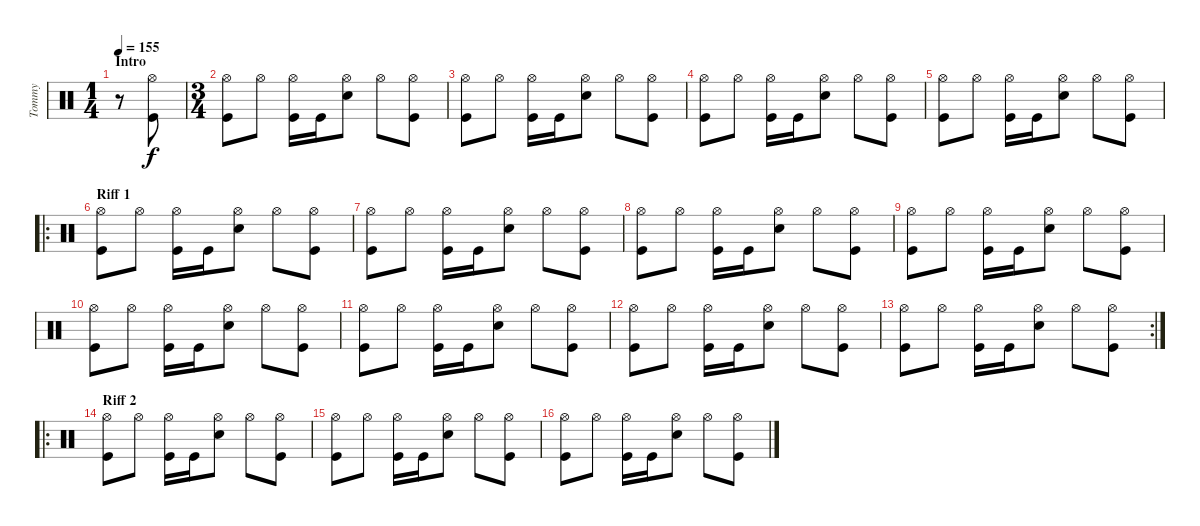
\track ("Tommy" "Tommy") {instrument percussion}
\staff {score}
\articulation defaults
\ts (1 4)
\section ("" "Intro")
\tempo 155
\clef neutral
\ks c
r.8{dy f} ("Hi-Hat (open)" "Kick (hit)").8 |
\ts (3 4)
("Hi-Hat (open)" "Kick (hit)").8 "Hi-Hat (open)".8 ("Hi-Hat (open)" "Kick (hit)").16 "Kick (hit)".16 ("Electric Snare (hit)" "Hi-Hat (open)").8 "Hi-Hat (open)".8 ("Hi-Hat (open)" "Kick (hit)").8 |
("Hi-Hat (open)" "Kick (hit)").8 "Hi-Hat (open)".8 ("Hi-Hat (open)" "Kick (hit)").16 "Kick (hit)".16 ("Electric Snare (hit)" "Hi-Hat (open)").8 "Hi-Hat (open)".8 ("Hi-Hat (open)" "Kick (hit)").8 |
("Hi-Hat (open)" "Kick (hit)").8 "Hi-Hat (open)".8 ("Hi-Hat (open)" "Kick (hit)").16 "Kick (hit)".16 ("Electric Snare (hit)" "Hi-Hat (open)").8 "Hi-Hat (open)".8 ("Hi-Hat (open)" "Kick (hit)").8 |
("Hi-Hat (open)" "Kick (hit)").8 "Hi-Hat (open)".8 ("Hi-Hat (open)" "Kick (hit)").16 "Kick (hit)".16 ("Electric Snare (hit)" "Hi-Hat (open)").8 "Hi-Hat (open)".8 ("Hi-Hat (open)" "Kick (hit)").8 |
\ro
\section ("" "Riff 1")
("Hi-Hat (open)" "Kick (hit)").8 "Hi-Hat (open)".8 ("Hi-Hat (open)" "Kick (hit)").16 "Kick (hit)".16 ("Electric Snare (hit)" "Hi-Hat (open)").8 "Hi-Hat (open)".8 ("Hi-Hat (open)" "Kick (hit)").8 |
("Hi-Hat (open)" "Kick (hit)").8 "Hi-Hat (open)".8 ("Hi-Hat (open)" "Kick (hit)").16 "Kick (hit)".16 ("Electric Snare (hit)" "Hi-Hat (open)").8 "Hi-Hat (open)".8 ("Hi-Hat (open)" "Kick (hit)").8 |
("Hi-Hat (open)" "Kick (hit)").8 "Hi-Hat (open)".8 ("Hi-Hat (open)" "Kick (hit)").16 "Kick (hit)".16 ("Electric Snare (hit)" "Hi-Hat (open)").8 "Hi-Hat (open)".8 ("Hi-Hat (open)" "Kick (hit)").8 |
("Hi-Hat (open)" "Kick (hit)").8 "Hi-Hat (open)".8 ("Hi-Hat (open)" "Kick (hit)").16 "Kick (hit)".16 ("Electric Snare (hit)" "Hi-Hat (open)").8 "Hi-Hat (open)".8 ("Hi-Hat (open)" "Kick (hit)").8 |
("Hi-Hat (open)" "Kick (hit)").8 "Hi-Hat (open)".8 ("Hi-Hat (open)" "Kick (hit)").16 "Kick (hit)".16 ("Electric Snare (hit)" "Hi-Hat (open)").8 "Hi-Hat (open)".8 ("Hi-Hat (open)" "Kick (hit)").8 |
("Hi-Hat (open)" "Kick (hit)").8 "Hi-Hat (open)".8 ("Hi-Hat (open)" "Kick (hit)").16 "Kick (hit)".16 ("Electric Snare (hit)" "Hi-Hat (open)").8 "Hi-Hat (open)".8 ("Hi-Hat (open)" "Kick (hit)").8 |
("Hi-Hat (open)" "Kick (hit)").8 "Hi-Hat (open)".8 ("Hi-Hat (open)" "Kick (hit)").16 "Kick (hit)".16 ("Electric Snare (hit)" "Hi-Hat (open)").8 "Hi-Hat (open)".8 ("Hi-Hat (open)" "Kick (hit)").8 |
\rc 2
("Hi-Hat (open)" "Kick (hit)").8 "Hi-Hat (open)".8 ("Hi-Hat (open)" "Kick (hit)").16 "Kick (hit)".16 ("Electric Snare (hit)" "Hi-Hat (open)").8 "Hi-Hat (open)".8 ("Hi-Hat (open)" "Kick (hit)").8 |
\ro
\section ("" "Riff 2")
("Hi-Hat (open)" "Kick (hit)").8 "Hi-Hat (open)".8 ("Hi-Hat (open)" "Kick (hit)").16 "Kick (hit)".16 ("Electric Snare (hit)" "Hi-Hat (open)").8 "Hi-Hat (open)".8 ("Hi-Hat (open)" "Kick (hit)").8 |
("Hi-Hat (open)" "Kick (hit)").8 "Hi-Hat (open)".8 ("Hi-Hat (open)" "Kick (hit)").16 "Kick (hit)".16 ("Electric Snare (hit)" "Hi-Hat (open)").8 "Hi-Hat (open)".8 ("Hi-Hat (open)" "Kick (hit)").8 |
("Hi-Hat (open)" "Kick (hit)").8 "Hi-Hat (open)".8 ("Hi-Hat (open)" "Kick (hit)").16 "Kick (hit)".16 ("Electric Snare (hit)" "Hi-Hat (open)").8 "Hi-Hat (open)".8 ("Hi-Hat (open)" "Kick (hit)").8
